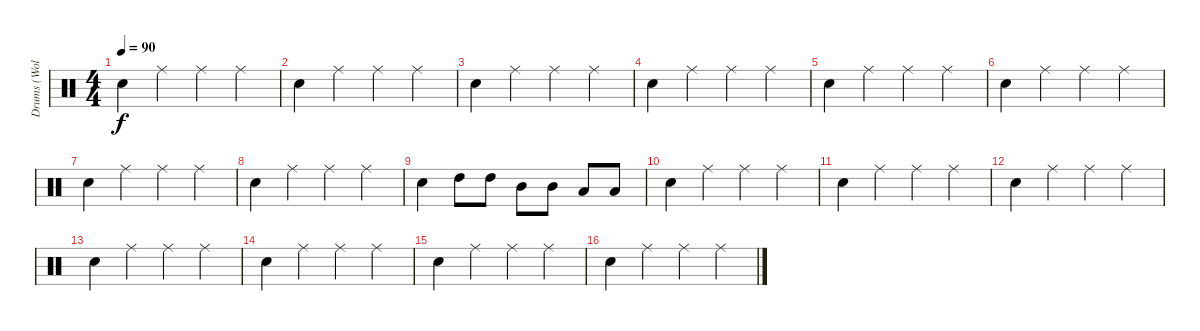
\track ("Drums (Wolf Simons)" "Drums (Wol") {instrument percussion}
\staff {score}
\articulation defaults
\ts (4 4)
\tempo 90
\clef neutral
\ks c "Snare (hit) 2".4{dy f} "Ride (middle)".4 "Ride (middle)".4 "Ride (middle)".4
|
"Snare (hit) 2".4 "Ride (middle)".4 "Ride (middle)".4 "Ride (middle)".4 |
"Snare (hit) 2".4 "Ride (middle)".4 "Ride (middle)".4 "Ride (middle)".4 |
"Snare (hit) 2".4 "Ride (middle)".4 "Ride (middle)".4 "Ride (middle)".4 |
"Snare (hit) 2".4 "Ride (middle)".4 "Ride (middle)".4 "Ride (middle)".4 |
"Snare (hit) 2".4 "Ride (middle)".4 "Ride (middle)".4 "Ride (middle)".4 |
"Snare (hit) 2".4 "Ride (middle)".4 "Ride (middle)".4 "Ride (middle)".4 |
"Snare (hit) 2".4 "Ride (middle)".4 "Ride (middle)".4 "Ride (middle)".4 |
"Snare (hit) 2".4 "High Tom (hit)".8 "High Tom (hit)".8 "Mid Tom (hit)".8 "Mid Tom (hit)".8 "Low Tom (hit)".8 "Low Tom (hit)".8 |
"Snare (hit) 2".4 "Ride (middle)".4 "Ride (middle)".4 "Ride (middle)".4 |
"Snare (hit) 2".4 "Ride (middle)".4 "Ride (middle)".4 "Ride (middle)".4 |
"Snare (hit) 2".4 "Ride (middle)".4 "Ride (middle)".4 "Ride (middle)".4 |
"Snare (hit) 2".4 "Ride (middle)".4 "Ride (middle)".4 "Ride (middle)".4 |
"Snare (hit) 2".4 "Ride (middle)".4 "Ride (middle)".4 "Ride (middle)".4 |
"Snare (hit) 2".4 "Ride (middle)".4 "Ride (middle)".4 "Ride (middle)".4 |
"Snare (hit) 2".4 "Ride (middle)".4 "Ride (middle)".4 "Ride (middle)".4
